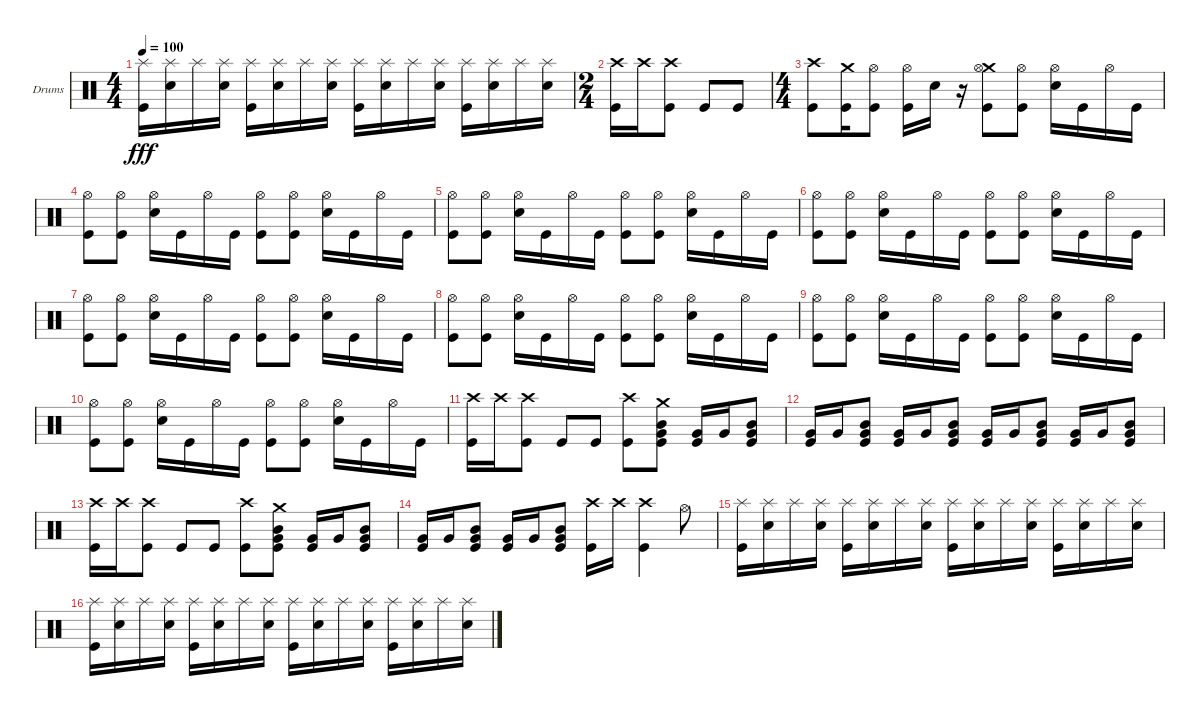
\bracketExtendMode groupsimilarinstruments
\firstSystemTrackNameOrientation horizontal
\otherSystemsTrackNameOrientation horizontal
\track ("Lars Ulrich (Drum)" "Drums") {instrument percussion}
\staff {score}
\articulation defaults
\ts (4 4)
\tempo 100
\clef neutral
\scale
0.333333
\ks c
("Splash (hit)" "Kick (hit)").16{dy fff} ("Splash (hit)" "Snare (hit) 2").16 "Splash (hit)".16 ("Splash (hit)" "Snare (hit) 2").16 ("Splash (hit)" "Kick (hit)").16 ("Splash (hit)" "Snare (hit) 2").16 "Splash (hit)".16 ("Splash (hit)" "Snare (hit) 2").16 ("Splash (hit)" "Kick (hit)").16 ("Splash (hit)" "Snare (hit) 2").16 "Splash (hit)".16 ("Splash (hit)" "Snare (hit) 2").16 ("Splash (hit)" "Kick (hit)").16 ("Splash (hit)" "Snare (hit) 2").16 "Splash (hit)".16 ("Splash (hit)" "Snare (hit) 2").16 |
\ts (2 4)
\scale
0.391473 ("Crash high (hit)" "Kick (hit)").16 "Crash high (hit)".16 ("Crash high (hit)" "Kick (hit)").8 "Kick (hit)".8 "Kick (hit)".8 |
\ts (4 4)
\scale
0.391473 ("Crash high (hit)" "Kick (hit)").8 ("Crash medium (hit)" "Kick (hit)").16 ("Hi-Hat (open)" "Kick (hit)").8 ("Hi-Hat (open)" "Kick (hit)").16 "Snare (hit) 2".16 r.16 ("Crash medium (hit)" "Hi-Hat (open)" "Kick (hit)").8 ("Hi-Hat (open)" "Kick (hit)").8 ("Hi-Hat (open)" "Snare (hit) 2").16 "Kick (hit)".16 "Hi-Hat (open)".16 "Kick (hit)".16 |
\scale
0.217054 ("Hi-Hat (open)" "Kick (hit)").8 ("Hi-Hat (open)" "Kick (hit)").8 ("Hi-Hat (open)" "Snare (hit) 2").16 "Kick (hit)".16 "Hi-Hat (open)".16 "Kick (hit)".16 ("Hi-Hat (open)" "Kick (hit)").8 ("Hi-Hat (open)" "Kick (hit)").8 ("Hi-Hat (open)" "Snare (hit) 2").16 "Kick (hit)".16 "Hi-Hat (open)".16 "Kick (hit)".16 |
\scale
0.333333 ("Hi-Hat (open)" "Kick (hit)").8 ("Hi-Hat (open)" "Kick (hit)").8 ("Hi-Hat (open)" "Snare (hit) 2").16 "Kick (hit)".16 "Hi-Hat (open)".16 "Kick (hit)".16 ("Hi-Hat (open)" "Kick (hit)").8 ("Hi-Hat (open)" "Kick (hit)").8 ("Hi-Hat (open)" "Snare (hit) 2").16 "Kick (hit)".16 "Hi-Hat (open)".16 "Kick (hit)".16 |
\scale
0.333333 ("Hi-Hat (open)" "Kick (hit)").8 ("Hi-Hat (open)" "Kick (hit)").8 ("Hi-Hat (open)" "Snare (hit) 2").16 "Kick (hit)".16 "Hi-Hat (open)".16 "Kick (hit)".16 ("Hi-Hat (open)" "Kick (hit)").8 ("Hi-Hat (open)" "Kick (hit)").8 ("Hi-Hat (open)" "Snare (hit) 2").16 "Kick (hit)".16 "Hi-Hat (open)".16 "Kick (hit)".16 |
\scale
0.333333 ("Hi-Hat (open)" "Kick (hit)").8 ("Hi-Hat (open)" "Kick (hit)").8 ("Hi-Hat (open)" "Snare (hit) 2").16 "Kick (hit)".16 "Hi-Hat (open)".16 "Kick (hit)".16 ("Hi-Hat (open)" "Kick (hit)").8 ("Hi-Hat (open)" "Kick (hit)").8 ("Hi-Hat (open)" "Snare (hit) 2").16 "Kick (hit)".16 "Hi-Hat (open)".16 "Kick (hit)".16 |
\scale
0.333333 ("Hi-Hat (open)" "Kick (hit)").8 ("Hi-Hat (open)" "Kick (hit)").8 ("Hi-Hat (open)" "Snare (hit) 2").16 "Kick (hit)".16 "Hi-Hat (open)".16 "Kick (hit)".16 ("Hi-Hat (open)" "Kick (hit)").8 ("Hi-Hat (open)" "Kick (hit)").8 ("Hi-Hat (open)" "Snare (hit) 2").16 "Kick (hit)".16 "Hi-Hat (open)".16 "Kick (hit)".16 |
\scale
0.333333 ("Hi-Hat (open)" "Kick (hit)").8 ("Hi-Hat (open)" "Kick (hit)").8 ("Hi-Hat (open)" "Snare (hit) 2").16 "Kick (hit)".16 "Hi-Hat (open)".16 "Kick (hit)".16 ("Hi-Hat (open)" "Kick (hit)").8 ("Hi-Hat (open)" "Kick (hit)").8 ("Hi-Hat (open)" "Snare (hit) 2").16 "Kick (hit)".16 "Hi-Hat (open)".16 "Kick (hit)".16 |
\scale
0.333333 ("Hi-Hat (open)" "Kick (hit)").8 ("Hi-Hat (open)" "Kick (hit)").8 ("Hi-Hat (open)" "Snare (hit) 2").16 "Kick (hit)".16 "Hi-Hat (open)".16 "Kick (hit)".16 ("Hi-Hat (open)" "Kick (hit)").8 ("Hi-Hat (open)" "Kick (hit)").8 ("Hi-Hat (open)" "Snare (hit) 2").16 "Kick (hit)".16 "Hi-Hat (open)".16 "Kick (hit)".16 |
\scale
0.333333 ("Crash high (hit)" "Kick (hit)").16 "Crash high (hit)".16 ("Crash high (hit)" "Kick (hit)").8 "Kick (hit)".8 "Kick (hit)".8 ("Crash high (hit)" "Kick (hit)").8 ("Crash medium (hit)" "Mid Tom (hit)" "Very Low Tom (hit)" "Kick (hit)").8 ("Very Low Tom (hit)" "Kick (hit)").16 "Very Low Tom (hit)".16 ("Mid Tom (hit)" "Very Low Tom (hit)" "Kick (hit)").8 |
\scale
0.333333 ("Very Low Tom (hit)" "Kick (hit)").16 "Very Low Tom (hit)".16 ("Mid Tom (hit)" "Very Low Tom (hit)" "Kick (hit)").8 ("Very Low Tom (hit)" "Kick (hit)").16 "Very Low Tom (hit)".16 ("Mid Tom (hit)" "Very Low Tom (hit)" "Kick (hit)").8 ("Very Low Tom (hit)" "Kick (hit)").16 "Very Low Tom (hit)".16 ("Mid Tom (hit)" "Very Low Tom (hit)" "Kick (hit)").8 ("Very Low Tom (hit)" "Kick (hit)").16 "Very Low Tom (hit)".16 ("Mid Tom (hit)" "Very Low Tom (hit)" "Kick (hit)").8 |
\scale
0.333333 ("Crash high (hit)" "Kick (hit)").16 "Crash high (hit)".16 ("Crash high (hit)" "Kick (hit)").8 "Kick (hit)".8 "Kick (hit)".8 ("Crash high (hit)" "Kick (hit)").8 ("Crash medium (hit)" "Mid Tom (hit)" "Very Low Tom (hit)" "Kick (hit)").8 ("Very Low Tom (hit)" "Kick (hit)").16 "Very Low Tom (hit)".16 ("Mid Tom (hit)" "Very Low Tom (hit)" "Kick (hit)").8 |
\scale
0.333333 ("Very Low Tom (hit)" "Kick (hit)").16 "Very Low Tom (hit)".16 ("Mid Tom (hit)" "Very Low Tom (hit)" "Kick (hit)").8 ("Very Low Tom (hit)" "Kick (hit)").16 "Very Low Tom (hit)".16 ("Mid Tom (hit)" "Very Low Tom (hit)" "Kick (hit)").8 ("Crash high (hit)" "Kick (hit)").16 "Crash high (hit)".16 ("Crash high (hit)" "Kick (hit)").4 "Hi-Hat (open)".8 |
\scale
0.333333 ("Splash (hit)" "Kick (hit)").16 ("Splash (hit)" "Snare (hit) 2").16 "Splash (hit)".16 ("Splash (hit)" "Snare (hit) 2").16 ("Splash (hit)" "Kick (hit)").16 ("Splash (hit)" "Snare (hit) 2").16 "Splash (hit)".16 ("Splash (hit)" "Snare (hit) 2").16 ("Splash (hit)" "Kick (hit)").16 ("Splash (hit)" "Snare (hit) 2").16 "Splash (hit)".16 ("Splash (hit)" "Snare (hit) 2").16 ("Splash (hit)" "Kick (hit)").16 ("Splash (hit)" "Snare (hit) 2").16 "Splash (hit)".16 ("Splash (hit)" "Snare (hit) 2").16 |
\scale
0.333333 ("Splash (hit)" "Kick (hit)").16 ("Splash (hit)" "Snare (hit) 2").16 "Splash (hit)".16 ("Splash (hit)" "Snare (hit) 2").16 ("Splash (hit)" "Kick (hit)").16 ("Splash (hit)" "Snare (hit) 2").16 "Splash (hit)".16 ("Splash (hit)" "Snare (hit) 2").16 ("Splash (hit)" "Kick (hit)").16 ("Splash (hit)" "Snare (hit) 2").16 "Splash (hit)".16 ("Splash (hit)" "Snare (hit) 2").16 ("Splash (hit)" "Kick (hit)").16 ("Splash (hit)" "Snare (hit) 2").16 "Splash (hit)".16 ("Splash (hit)" "Snare (hit) 2").16
